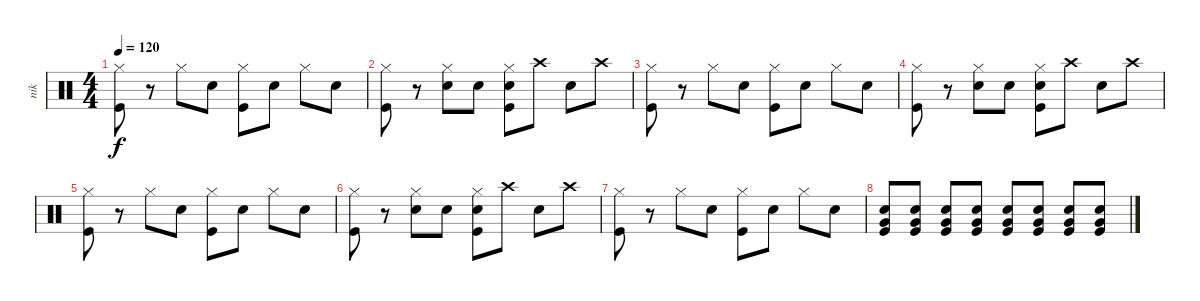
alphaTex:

\track ("nik" "nik") {instrument percussion}
\staff {score}
\articulation defaults
\ts (4 4)
\tempo 120
\clef neutral
\ks c
("Hi-Hat (closed)" "Kick (hit)").8{dy f} r.8 "Hi-Hat (closed)".8 "Electric Snare (hit)".8 ("Hi-Hat (closed)" "Kick (hit)").8 "Electric Snare (hit)".8 "Hi-Hat (closed)".8 "Electric Snare (hit)".8 |
("Hi-Hat (closed)" "Kick (hit)").8 r.8 ("Hi-Hat (closed)" "Electric Snare (hit)").8 "Electric Snare (hit)".8 ("Hi-Hat (closed)" "Electric Snare (hit)" "Kick (hit)").8 "Crash high (hit)".8 "Electric Snare (hit)".8 "Crash high (hit)".8 |
("Hi-Hat (closed)" "Kick (hit)").8 r.8 "Hi-Hat (closed)".8 "Electric Snare (hit)".8 ("Hi-Hat (closed)" "Kick (hit)").8 "Electric Snare (hit)".8 "Hi-Hat (closed)".8 "Electric Snare (hit)".8 |
("Hi-Hat (closed)" "Kick (hit)").8 r.8 ("Hi-Hat (closed)" "Electric Snare (hit)").8 "Electric Snare (hit)".8 ("Hi-Hat (closed)" "Electric Snare (hit)" "Kick (hit)").8 "Crash high (hit)".8 "Electric Snare (hit)".8 "Crash high (hit)".8 |
("Hi-Hat (closed)" "Kick (hit)").8 r.8 "Hi-Hat (closed)".8 "Electric Snare (hit)".8 ("Hi-Hat (closed)" "Kick (hit)").8 "Electric Snare (hit)".8 "Hi-Hat (closed)".8 "Electric Snare (hit)".8 |
("Hi-Hat (closed)" "Kick (hit)").8 r.8 ("Hi-Hat (closed)" "Electric Snare (hit)").8 "Electric Snare (hit)".8 ("Hi-Hat (closed)" "Electric Snare (hit)" "Kick (hit)").8 "Crash high (hit)".8 "Electric Snare (hit)".8 "Crash high (hit)".8 |
("Hi-Hat (closed)" "Kick (hit)").8 r.8 "Hi-Hat (closed)".8 "Electric Snare (hit)".8 ("Hi-Hat (closed)" "Kick (hit)").8 "Electric Snare (hit)".8 "Hi-Hat (closed)".8 "Electric Snare (hit)".8 |
("Very Low Tom (hit)" "Electric Snare (hit)" "Kick (hit)").8 ("Very Low Tom (hit)" "Electric Snare (hit)" "Kick (hit)").8 ("Very Low Tom (hit)" "Electric Snare (hit)" "Kick (hit)").8 ("Very Low Tom (hit)" "Electric Snare (hit)" "Kick (hit)").8 ("Very Low Tom (hit)" "Electric Snare (hit)" "Kick (hit)").8 ("Very Low Tom (hit)" "Electric Snare (hit)" "Kick (hit)").8 ("Very Low Tom (hit)" "Electric Snare (hit)" "Kick (hit)").8 ("Very Low Tom (hit)" "Electric Snare (hit)" "Kick (hit)").8
